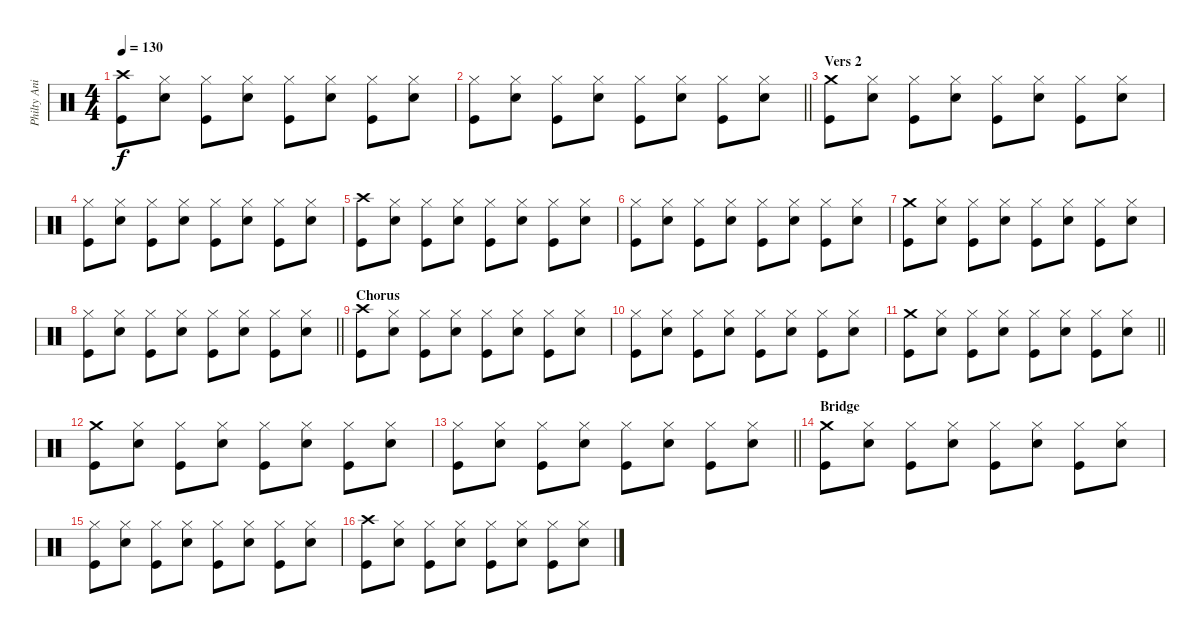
\track ("Philty Animal Taylor" "Philty Ani") {instrument percussion}
\staff {score}
\articulation defaults
\ts (4 4)
\tempo 130
\clef neutral
\ks c
("Crash high (hit)" "Kick (hit)").8{dy f} ("Hi-Hat (closed)" "Electric Snare (hit)").8 ("Hi-Hat (closed)" "Kick (hit)").8 ("Hi-Hat (closed)" "Electric Snare (hit)").8 ("Hi-Hat (closed)" "Kick (hit)").8 ("Hi-Hat (closed)" "Electric Snare (hit)").8 ("Hi-Hat (closed)" "Kick (hit)").8 ("Hi-Hat (closed)" "Electric Snare (hit)").8 |
\barLineRight lightlight
("Hi-Hat (closed)" "Kick (hit)").8 ("Hi-Hat (closed)" "Electric Snare (hit)").8 ("Hi-Hat (closed)" "Kick (hit)").8 ("Hi-Hat (closed)" "Electric Snare (hit)").8 ("Hi-Hat (closed)" "Kick (hit)").8 ("Hi-Hat (closed)" "Electric Snare (hit)").8 ("Hi-Hat (closed)" "Kick (hit)").8 ("Hi-Hat (closed)" "Electric Snare (hit)").8 |
\section ("" "Vers 2")
("Crash medium (hit)" "Kick (hit)").8 ("Hi-Hat (closed)" "Electric Snare (hit)").8 ("Hi-Hat (closed)" "Kick (hit)").8 ("Hi-Hat (closed)" "Electric Snare (hit)").8 ("Hi-Hat (closed)" "Kick (hit)").8 ("Hi-Hat (closed)" "Electric Snare (hit)").8 ("Hi-Hat (closed)" "Kick (hit)").8 ("Hi-Hat (closed)" "Electric Snare (hit)").8 |
("Hi-Hat (closed)" "Kick (hit)").8 ("Hi-Hat (closed)" "Electric Snare (hit)").8 ("Hi-Hat (closed)" "Kick (hit)").8 ("Hi-Hat (closed)" "Electric Snare (hit)").8 ("Hi-Hat (closed)" "Kick (hit)").8 ("Hi-Hat (closed)" "Electric Snare (hit)").8 ("Hi-Hat (closed)" "Kick (hit)").8 ("Hi-Hat (closed)" "Electric Snare (hit)").8 |
("Crash high (hit)" "Kick (hit)").8 ("Hi-Hat (closed)" "Electric Snare (hit)").8 ("Hi-Hat (closed)" "Kick (hit)").8 ("Hi-Hat (closed)" "Electric Snare (hit)").8 ("Hi-Hat (closed)" "Kick (hit)").8 ("Hi-Hat (closed)" "Electric Snare (hit)").8 ("Hi-Hat (closed)" "Kick (hit)").8 ("Hi-Hat (closed)" "Electric Snare (hit)").8 |
("Hi-Hat (closed)" "Kick (hit)").8 ("Hi-Hat (closed)" "Electric Snare (hit)").8 ("Hi-Hat (closed)" "Kick (hit)").8 ("Hi-Hat (closed)" "Electric Snare (hit)").8 ("Hi-Hat (closed)" "Kick (hit)").8 ("Hi-Hat (closed)" "Electric Snare (hit)").8 ("Hi-Hat (closed)" "Kick (hit)").8 ("Hi-Hat (closed)" "Electric Snare (hit)").8 |
("Crash medium (hit)" "Kick (hit)").8 ("Hi-Hat (closed)" "Electric Snare (hit)").8 ("Hi-Hat (closed)" "Kick (hit)").8 ("Hi-Hat (closed)" "Electric Snare (hit)").8 ("Hi-Hat (closed)" "Kick (hit)").8 ("Hi-Hat (closed)" "Electric Snare (hit)").8 ("Hi-Hat (closed)" "Kick (hit)").8 ("Hi-Hat (closed)" "Electric Snare (hit)").8 |
\barLineRight lightlight
("Hi-Hat (closed)" "Kick (hit)").8 ("Hi-Hat (closed)" "Electric Snare (hit)").8 ("Hi-Hat (closed)" "Kick (hit)").8 ("Hi-Hat (closed)" "Electric Snare (hit)").8 ("Hi-Hat (closed)" "Kick (hit)").8 ("Hi-Hat (closed)" "Electric Snare (hit)").8 ("Hi-Hat (closed)" "Kick (hit)").8 ("Hi-Hat (closed)" "Electric Snare (hit)").8 |
\section ("" "Chorus")
("Crash high (hit)" "Kick (hit)").8 ("Hi-Hat (closed)" "Electric Snare (hit)").8 ("Hi-Hat (closed)" "Kick (hit)").8 ("Hi-Hat (closed)" "Electric Snare (hit)").8 ("Hi-Hat (closed)" "Kick (hit)").8 ("Hi-Hat (closed)" "Electric Snare (hit)").8 ("Hi-Hat (closed)" "Kick (hit)").8 ("Hi-Hat (closed)" "Electric Snare (hit)").8 |
("Hi-Hat (closed)" "Kick (hit)").8 ("Hi-Hat (closed)" "Electric Snare (hit)").8 ("Hi-Hat (closed)" "Kick (hit)").8 ("Hi-Hat (closed)" "Electric Snare (hit)").8 ("Hi-Hat (closed)" "Kick (hit)").8 ("Hi-Hat (closed)" "Electric Snare (hit)").8 ("Hi-Hat (closed)" "Kick (hit)").8 ("Hi-Hat (closed)" "Electric Snare (hit)").8 |
\barLineRight lightlight
("Crash medium (hit)" "Kick (hit)").8 ("Hi-Hat (closed)" "Electric Snare (hit)").8 ("Hi-Hat (closed)" "Kick (hit)").8 ("Hi-Hat (closed)" "Electric Snare (hit)").8 ("Hi-Hat (closed)" "Kick (hit)").8 ("Hi-Hat (closed)" "Electric Snare (hit)").8 ("Hi-Hat (closed)" "Kick (hit)").8 ("Hi-Hat (closed)" "Electric Snare (hit)").8 |
("Crash medium (hit)" "Kick (hit)").8 ("Hi-Hat (closed)" "Electric Snare (hit)").8 ("Hi-Hat (closed)" "Kick (hit)").8 ("Hi-Hat (closed)" "Electric Snare (hit)").8 ("Hi-Hat (closed)" "Kick (hit)").8 ("Hi-Hat (closed)" "Electric Snare (hit)").8 ("Hi-Hat (closed)" "Kick (hit)").8 ("Hi-Hat (closed)" "Electric Snare (hit)").8 |
\barLineRight lightlight
("Hi-Hat (closed)" "Kick (hit)").8 ("Hi-Hat (closed)" "Electric Snare (hit)").8 ("Hi-Hat (closed)" "Kick (hit)").8 ("Hi-Hat (closed)" "Electric Snare (hit)").8 ("Hi-Hat (closed)" "Kick (hit)").8 ("Hi-Hat (closed)" "Electric Snare (hit)").8 ("Hi-Hat (closed)" "Kick (hit)").8 ("Hi-Hat (closed)" "Electric Snare (hit)").8 |
\section ("" "Bridge")
("Crash medium (hit)" "Kick (hit)").8 ("Hi-Hat (closed)" "Electric Snare (hit)").8 ("Hi-Hat (closed)" "Kick (hit)").8 ("Hi-Hat (closed)" "Electric Snare (hit)").8 ("Hi-Hat (closed)" "Kick (hit)").8 ("Hi-Hat (closed)" "Electric Snare (hit)").8 ("Hi-Hat (closed)" "Kick (hit)").8 ("Hi-Hat (closed)" "Electric Snare (hit)").8 |
("Hi-Hat (closed)" "Kick (hit)").8 ("Hi-Hat (closed)" "Electric Snare (hit)").8 ("Hi-Hat (closed)" "Kick (hit)").8 ("Hi-Hat (closed)" "Electric Snare (hit)").8 ("Hi-Hat (closed)" "Kick (hit)").8 ("Hi-Hat (closed)" "Electric Snare (hit)").8 ("Hi-Hat (closed)" "Kick (hit)").8 ("Hi-Hat (closed)" "Electric Snare (hit)").8 |
("Crash high (hit)" "Kick (hit)").8 ("Hi-Hat (closed)" "Electric Snare (hit)").8 ("Hi-Hat (closed)" "Kick (hit)").8 ("Hi-Hat (closed)" "Electric Snare (hit)").8 ("Hi-Hat (closed)" "Kick (hit)").8 ("Hi-Hat (closed)" "Electric Snare (hit)").8 ("Hi-Hat (closed)" "Kick (hit)").8 ("Hi-Hat (closed)" "Electric Snare (hit)").8
